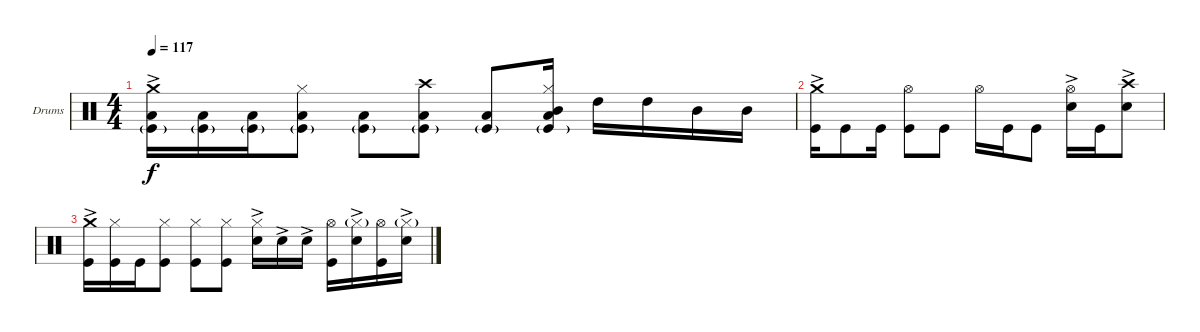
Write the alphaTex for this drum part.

\bracketExtendMode groupsimilarinstruments
\firstSystemTrackNameOrientation horizontal
\otherSystemsTrackNameOrientation horizontal
\track ("Drumkit" "Drums") {instrument percussion}
\staff {score}
\articulation defaults
\ts (4 4)
\tempo 117
\clef neutral
\ks c
("Kick (hit)"{g} "Low Tom (hit)" "Crash medium (hit)"{ac}).16{dy f} ("Kick (hit)"{g} "Low Tom (hit)").16 ("Kick (hit)"{g} "Low Tom (hit)").16 ("Kick (hit)"{g} "Low Tom (hit)" "Hi-Hat (closed)").8 ("Kick (hit)"{g} "Low Tom (hit)").8 ("Kick (hit)"{g} "Low Tom (hit)" "Crash high (hit)").8 ("Kick (hit)"{g} "Low Tom (hit)").8 ("Kick (hit)"{g} "Low Tom (hit)" "Mid Tom (hit)" "Hi-Hat (closed)").16 "High Tom (hit)".16 "High Tom (hit)".16 "Mid Tom (hit)".16 "Mid Tom (hit)".16 |
("Kick (hit)" "Crash medium (hit)"{ac}).16 "Kick (hit)".8 "Kick (hit)".16 ("Kick (hit)" "Hi-Hat (open)").8 "Kick (hit)".8 "Hi-Hat (open)".16 "Kick (hit)".16 "Kick (hit)".8 ("Hi-Hat (open)" "Snare (hit) 2"{ac}).16 "Kick (hit)".16 ("Snare (hit) 2"{ac} "Crash high (hit)").8 |
("Kick (hit)" "Crash medium (hit)"{ac}).16 ("Kick (hit)" "Hi-Hat (closed)").16 "Kick (hit)".16 ("Kick (hit)" "Hi-Hat (closed)").8 ("Kick (hit)" "Hi-Hat (closed)").8 ("Kick (hit)" "Hi-Hat (closed)").8 ("Snare (hit) 2"{ac} "Hi-Hat (closed)").16 "Snare (hit) 2"{ac}.16 "Snare (hit) 2"{ac}.16 ("Kick (hit)" "Hi-Hat (open)").16 ("Snare (hit) 2"{ac} "Hi-Hat (closed)"{g}).16 ("Kick (hit)" "Hi-Hat (open)").16 ("Snare (hit) 2"{ac} "Hi-Hat (closed)"{g}).16
